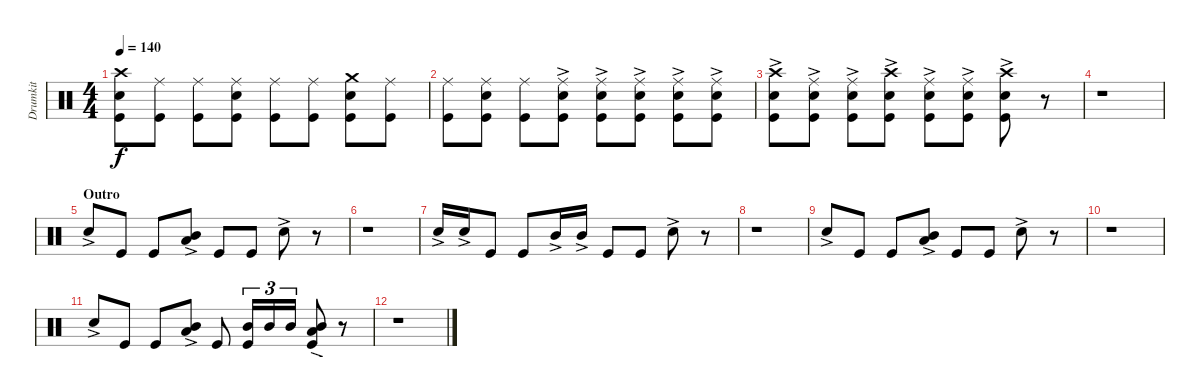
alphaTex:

\track ("Drumkit" "Drumkit") {instrument percussion}
\staff {score}
\articulation defaults
\ts (4 4)
\tempo 140
\clef neutral
\ks c
("Kick (hit)" "Snare (hit) 2" "Crash high (hit)").8{dy f} ("Kick (hit)" "Ride (middle)").8 ("Kick (hit)" "Ride (middle)").8 ("Kick (hit)" "Snare (hit) 2" "Ride (middle)").8 ("Kick (hit)" "Ride (middle)").8 ("Kick (hit)" "Ride (middle)").8 ("Kick (hit)" "Snare (hit) 2" "Crash medium (hit)").8 ("Kick (hit)" "Ride (middle)").8 |
("Kick (hit)" "Ride (middle)").8 ("Kick (hit)" "Snare (hit) 2" "Ride (middle)").8 ("Kick (hit)" "Ride (middle)").8 ("Kick (hit)"{ac} "Ride (middle)"{ac} "Snare (hit) 2"{ac}).8 ("Kick (hit)"{ac} "Snare (hit) 2"{ac} "Ride (middle)"{ac}).8 ("Kick (hit)"{ac} "Snare (hit) 2"{ac} "Ride (middle)"{ac}).8 ("Kick (hit)"{ac} "Snare (hit) 2"{ac} "Ride (middle)"{ac}).8 ("Kick (hit)"{ac} "Snare (hit) 2"{ac} "Ride (middle)"{ac}).8 |
("Kick (hit)"{ac} "Snare (hit) 2"{ac} "Crash high (hit)"{ac}).8 ("Kick (hit)"{ac} "Snare (hit) 2"{ac} "Ride (middle)"{ac}).8 ("Kick (hit)"{ac} "Snare (hit) 2"{ac} "Ride (middle)"{ac}).8 ("Kick (hit)"{ac} "Snare (hit) 2"{ac} "Crash high (hit)"{ac}).8 ("Kick (hit)"{ac} "Snare (hit) 2"{ac} "Ride (middle)"{ac}).8 ("Kick (hit)"{ac} "Ride (middle)"{ac} "Snare (hit) 2"{ac}).8 ("Kick (hit)"{ac} "Snare (hit) 2"{ac} "Crash high (hit)"{ac}).8 r.8 |
r.1 |
\section ("" "Outro")
"Snare (hit) 2"{ac}.8 "Kick (hit)".8 "Kick (hit)".8 ("Low Tom (hit)"{ac} "Mid Tom (hit)"{ac}).8 "Kick (hit)".8 "Kick (hit)".8 "Snare (hit) 2"{ac}.8 r.8 |
r.1 |
"Snare (hit) 2"{ac}.16 "Snare (hit) 2"{ac}.16 "Kick (hit)".8 "Kick (hit)".8 "Mid Tom (hit)"{ac}.16 "Mid Tom (hit)"{ac}.16 "Kick (hit)".8 "Kick (hit)".8 "Snare (hit) 2"{ac}.8 r.8 |
r.1 |
"Snare (hit) 2"{ac}.8 "Kick (hit)".8 "Kick (hit)".8 ("Low Tom (hit)"{ac} "Mid Tom (hit)"{ac}).8 "Kick (hit)".8 "Kick (hit)".8 "Snare (hit) 2"{ac}.8 r.8 |
r.1 |
"Snare (hit) 2"{ac}.8 "Kick (hit)".8 "Kick (hit)".8 ("Low Tom (hit)"{ac} "Mid Tom (hit)"{ac}).8 "Kick (hit)".8 ("Kick (hit)" "Mid Tom (hit)").16{tu (3 2)} "Mid Tom (hit)".16{tu (3 2)} "Mid Tom (hit)".16{tu (3 2)} ("Mid Tom (hit)"{ac} "Low Tom (hit)"{ac} "Kick (hit)").8 r.8 |
r.1
